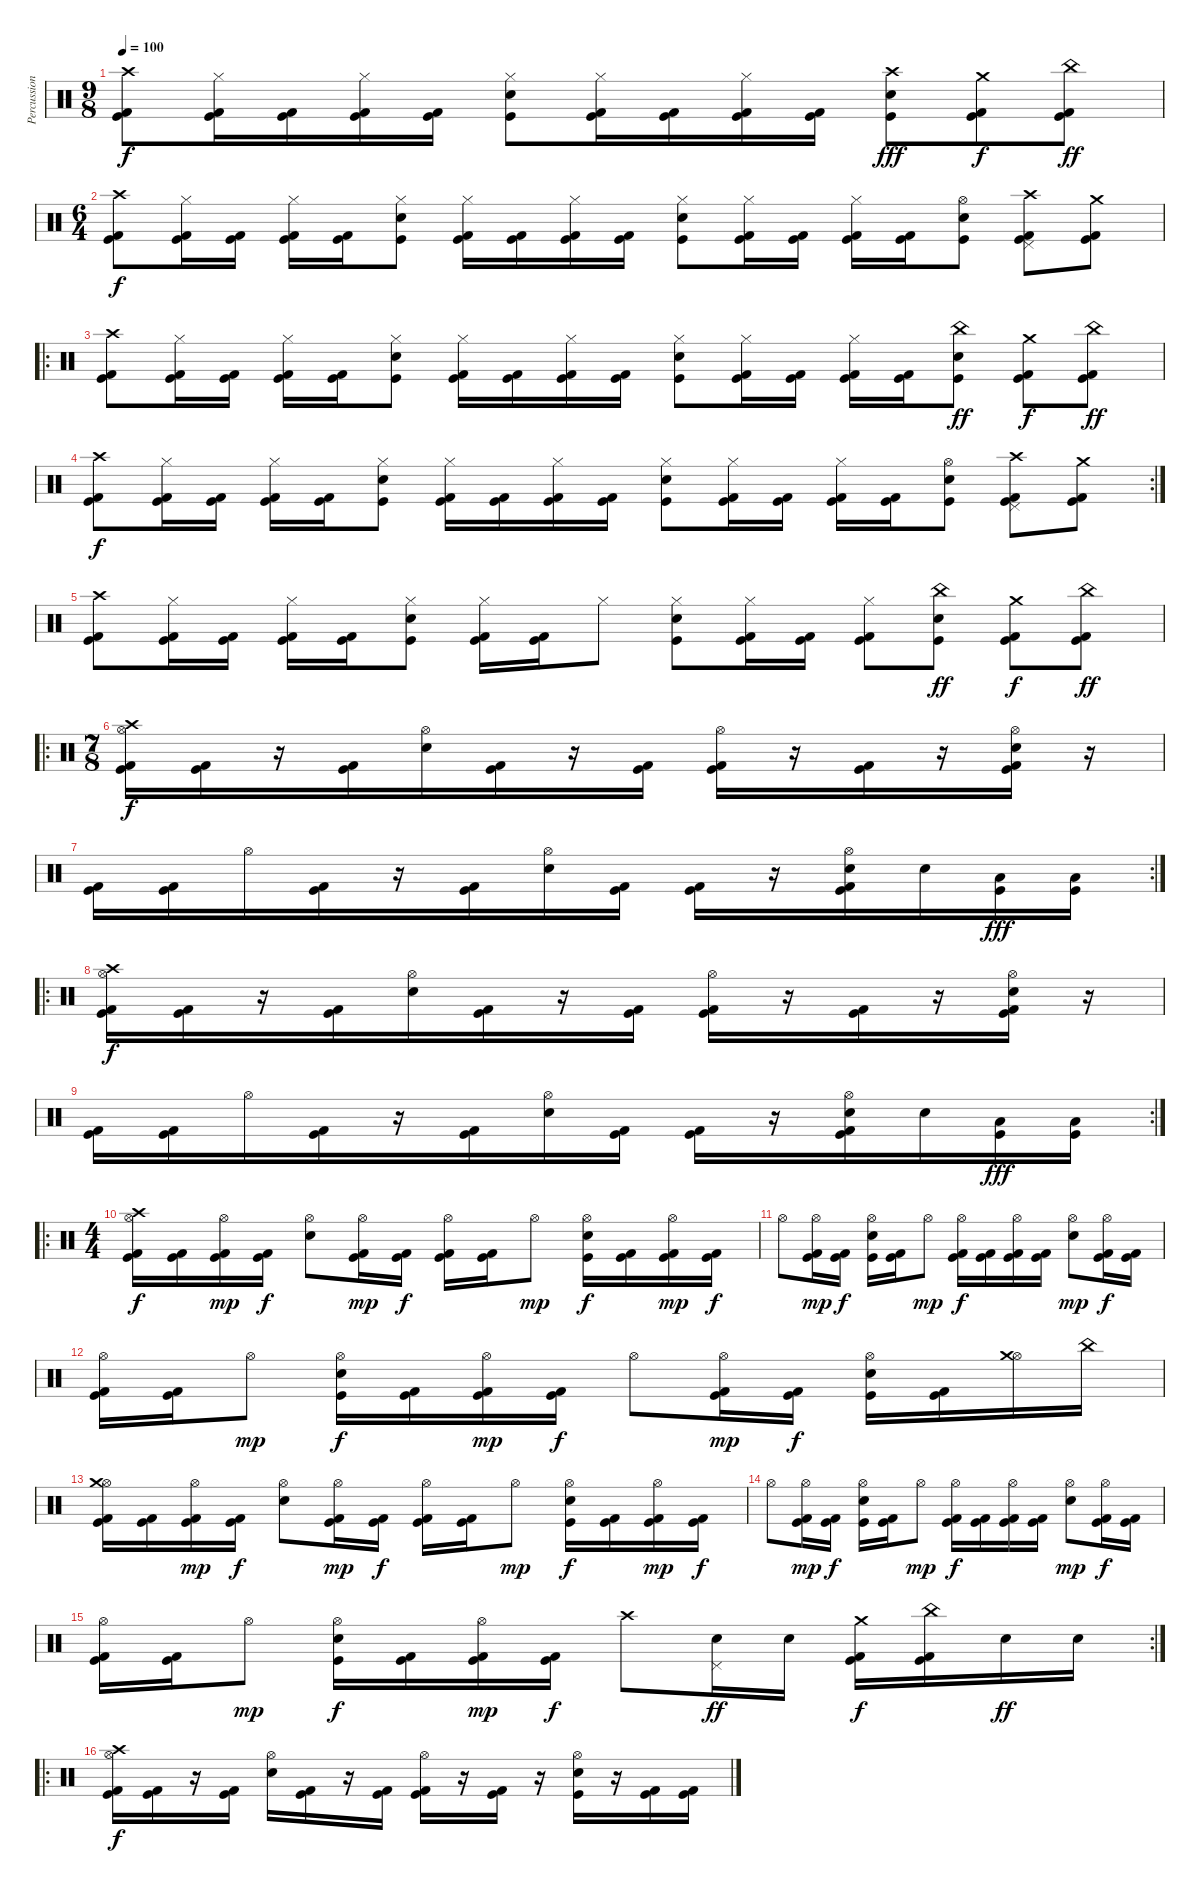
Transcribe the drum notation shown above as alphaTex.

\track ("Percussion" "Percussion") {instrument percussion}
\staff {score}
\articulation defaults
\ts (9 8)
\tempo 100
\clef neutral
\ks c
("Crash high (hit)" "Kick (hit) 2" "Kick (hit)").8{dy f} ("Hi-Hat (closed)" "Kick (hit) 2" "Kick (hit)").16 ("Kick (hit) 2" "Kick (hit)").16 ("Hi-Hat (closed)" "Kick (hit) 2" "Kick (hit)").16 ("Kick (hit) 2" "Kick (hit)").16 ("Hi-Hat (closed)" "Snare (hit) 2" "Kick (hit)").8 ("Hi-Hat (closed)" "Kick (hit) 2" "Kick (hit)").16 ("Kick (hit) 2" "Kick (hit)").16 ("Hi-Hat (closed)" "Kick (hit) 2" "Kick (hit)").16 ("Kick (hit) 2" "Kick (hit)").16 ("Crash high (hit)" "Snare (hit) 2" "Kick (hit)").8{dy fff} ("Crash medium (hit)" "Kick (hit) 2" "Kick (hit)").8{dy f} ("China (hit)" "Kick (hit) 2" "Kick (hit)").8{dy ff} |
\ts (6 4)
("Crash high (hit)" "Kick (hit) 2" "Kick (hit)").8{dy f} ("Hi-Hat (closed)" "Kick (hit) 2" "Kick (hit)").16 ("Kick (hit) 2" "Kick (hit)").16 ("Hi-Hat (closed)" "Kick (hit) 2" "Kick (hit)").16 ("Kick (hit) 2" "Kick (hit)").16 ("Hi-Hat (closed)" "Snare (hit) 2" "Kick (hit)").8 ("Hi-Hat (closed)" "Kick (hit) 2" "Kick (hit)").16 ("Kick (hit) 2" "Kick (hit)").16 ("Hi-Hat (closed)" "Kick (hit) 2" "Kick (hit)").16 ("Kick (hit) 2" "Kick (hit)").16 ("Hi-Hat (closed)" "Snare (hit) 2" "Kick (hit)").8 ("Hi-Hat (closed)" "Kick (hit) 2" "Kick (hit)").16 ("Kick (hit) 2" "Kick (hit)").16 ("Hi-Hat (closed)" "Kick (hit) 2" "Kick (hit)").16 ("Kick (hit) 2" "Kick (hit)").16 ("Hi-Hat (open)" "Snare (hit) 2" "Kick (hit)").8 ("Pedal Hi-Hat (hit)" "Crash high (hit)" "Kick (hit) 2" "Kick (hit)").8 ("Crash medium (hit)" "Kick (hit) 2" "Kick (hit)").8 |
\ro
("Crash high (hit)" "Kick (hit) 2" "Kick (hit)").8 ("Hi-Hat (closed)" "Kick (hit) 2" "Kick (hit)").16 ("Kick (hit) 2" "Kick (hit)").16 ("Hi-Hat (closed)" "Kick (hit) 2" "Kick (hit)").16 ("Kick (hit) 2" "Kick (hit)").16 ("Hi-Hat (closed)" "Snare (hit) 2" "Kick (hit)").8 ("Hi-Hat (closed)" "Kick (hit) 2" "Kick (hit)").16 ("Kick (hit) 2" "Kick (hit)").16 ("Hi-Hat (closed)" "Kick (hit) 2" "Kick (hit)").16 ("Kick (hit) 2" "Kick (hit)").16 ("Hi-Hat (closed)" "Snare (hit) 2" "Kick (hit)").8 ("Hi-Hat (closed)" "Kick (hit) 2" "Kick (hit)").16 ("Kick (hit) 2" "Kick (hit)").16 ("Hi-Hat (closed)" "Kick (hit) 2" "Kick (hit)").16 ("Kick (hit) 2" "Kick (hit)").16 ("China (hit)" "Snare (hit) 2" "Kick (hit)").8{dy ff} ("Crash medium (hit)" "Kick (hit) 2" "Kick (hit)").8{dy f} ("China (hit)" "Kick (hit) 2" "Kick (hit)").8{dy ff} |
\rc 2
("Crash high (hit)" "Kick (hit) 2" "Kick (hit)").8{dy f} ("Hi-Hat (closed)" "Kick (hit) 2" "Kick (hit)").16 ("Kick (hit) 2" "Kick (hit)").16 ("Hi-Hat (closed)" "Kick (hit) 2" "Kick (hit)").16 ("Kick (hit) 2" "Kick (hit)").16 ("Hi-Hat (closed)" "Snare (hit) 2" "Kick (hit)").8 ("Hi-Hat (closed)" "Kick (hit) 2" "Kick (hit)").16 ("Kick (hit) 2" "Kick (hit)").16 ("Hi-Hat (closed)" "Kick (hit) 2" "Kick (hit)").16 ("Kick (hit) 2" "Kick (hit)").16 ("Hi-Hat (closed)" "Snare (hit) 2" "Kick (hit)").8 ("Hi-Hat (closed)" "Kick (hit) 2" "Kick (hit)").16 ("Kick (hit) 2" "Kick (hit)").16 ("Hi-Hat (closed)" "Kick (hit) 2" "Kick (hit)").16 ("Kick (hit) 2" "Kick (hit)").16 ("Hi-Hat (open)" "Snare (hit) 2" "Kick (hit)").8 ("Pedal Hi-Hat (hit)" "Crash high (hit)" "Kick (hit) 2" "Kick (hit)").8 ("Crash medium (hit)" "Kick (hit) 2" "Kick (hit)").8 |
("Crash high (hit)" "Kick (hit) 2" "Kick (hit)").8 ("Hi-Hat (closed)" "Kick (hit) 2" "Kick (hit)").16 ("Kick (hit) 2" "Kick (hit)").16 ("Hi-Hat (closed)" "Kick (hit) 2" "Kick (hit)").16 ("Kick (hit) 2" "Kick (hit)").16 ("Hi-Hat (closed)" "Snare (hit) 2" "Kick (hit)").8 ("Hi-Hat (closed)" "Kick (hit) 2" "Kick (hit)").16 ("Kick (hit) 2" "Kick (hit)").16 "Hi-Hat (closed)".8 ("Hi-Hat (closed)" "Snare (hit) 2" "Kick (hit)").8 ("Hi-Hat (closed)" "Kick (hit) 2" "Kick (hit)").16 ("Kick (hit) 2" "Kick (hit)").16 ("Hi-Hat (closed)" "Kick (hit) 2" "Kick (hit)").8 ("China (hit)" "Snare (hit) 2" "Kick (hit)").8{dy ff} ("Crash medium (hit)" "Kick (hit) 2" "Kick (hit)").8{dy f} ("China (hit)" "Kick (hit) 2" "Kick (hit)").8{dy ff} |
\ro
\ts (7 8)
("Hi-Hat (open)" "Crash high (hit)" "Kick (hit) 2" "Kick (hit)").16{dy f} ("Kick (hit) 2" "Kick (hit)").16 r.16 ("Kick (hit) 2" "Kick (hit)").16 ("Hi-Hat (open)" "Snare (hit) 2").16 ("Kick (hit) 2" "Kick (hit)").16 r.16 ("Kick (hit) 2" "Kick (hit)").16 ("Hi-Hat (open)" "Kick (hit) 2" "Kick (hit)").16 r.16 ("Kick (hit) 2" "Kick (hit)").16 r.16 ("Hi-Hat (open)" "Snare (hit) 2" "Kick (hit) 2" "Kick (hit)").16 r.16 |
\rc 2
("Kick (hit) 2" "Kick (hit)").16 ("Kick (hit) 2" "Kick (hit)").16 "Hi-Hat (open)".16 ("Kick (hit) 2" "Kick (hit)").16 r.16 ("Kick (hit) 2" "Kick (hit)").16 ("Hi-Hat (open)" "Snare (hit) 2").16 ("Kick (hit) 2" "Kick (hit)").16 ("Kick (hit) 2" "Kick (hit)").16 r.16 ("Hi-Hat (open)" "Snare (hit) 2" "Kick (hit) 2" "Kick (hit)").16 "Snare (hit) 2".16 ("Low Tom (hit)" "Kick (hit)").16{dy fff} ("Low Tom (hit)" "Kick (hit)").16 |
\ro
("Hi-Hat (open)" "Crash high (hit)" "Kick (hit) 2" "Kick (hit)").16{dy f} ("Kick (hit) 2" "Kick (hit)").16 r.16 ("Kick (hit) 2" "Kick (hit)").16 ("Hi-Hat (open)" "Snare (hit) 2").16 ("Kick (hit) 2" "Kick (hit)").16 r.16 ("Kick (hit) 2" "Kick (hit)").16 ("Hi-Hat (open)" "Kick (hit) 2" "Kick (hit)").16 r.16 ("Kick (hit) 2" "Kick (hit)").16 r.16 ("Hi-Hat (open)" "Snare (hit) 2" "Kick (hit) 2" "Kick (hit)").16 r.16 |
\rc 2
("Kick (hit) 2" "Kick (hit)").16 ("Kick (hit) 2" "Kick (hit)").16 "Hi-Hat (open)".16 ("Kick (hit) 2" "Kick (hit)").16 r.16 ("Kick (hit) 2" "Kick (hit)").16 ("Hi-Hat (open)" "Snare (hit) 2").16 ("Kick (hit) 2" "Kick (hit)").16 ("Kick (hit) 2" "Kick (hit)").16 r.16 ("Hi-Hat (open)" "Snare (hit) 2" "Kick (hit) 2" "Kick (hit)").16 "Snare (hit) 2".16 ("Low Tom (hit)" "Kick (hit)").16{dy fff} ("Low Tom (hit)" "Kick (hit)").16 |
\ro
\ts (4 4)
("Hi-Hat (open)" "Crash high (hit)" "Kick (hit) 2" "Kick (hit)").16{dy f} ("Kick (hit) 2" "Kick (hit)").16 ("Hi-Hat (open)" "Kick (hit) 2" "Kick (hit)").16{dy mp} ("Kick (hit) 2" "Kick (hit)").16{dy f} ("Hi-Hat (open)" "Snare (hit) 2").8 ("Hi-Hat (open)" "Kick (hit) 2" "Kick (hit)").16{dy mp} ("Kick (hit) 2" "Kick (hit)").16{dy f} ("Hi-Hat (open)" "Kick (hit) 2" "Kick (hit)").16 ("Kick (hit) 2" "Kick (hit)").16 "Hi-Hat (open)".8{dy mp} ("Hi-Hat (open)" "Snare (hit) 2" "Kick (hit)").16{dy f} ("Kick (hit) 2" "Kick (hit)").16 ("Hi-Hat (open)" "Kick (hit) 2" "Kick (hit)").16{dy mp} ("Kick (hit) 2" "Kick (hit)").16{dy f} |
"Hi-Hat (open)".8 ("Hi-Hat (open)" "Kick (hit) 2" "Kick (hit)").16{dy mp} ("Kick (hit) 2" "Kick (hit)").16{dy f} ("Hi-Hat (open)" "Snare (hit) 2" "Kick (hit)").16 ("Kick (hit) 2" "Kick (hit)").16 "Hi-Hat (open)".8{dy mp} ("Hi-Hat (open)" "Kick (hit) 2" "Kick (hit)").16{dy f} ("Kick (hit) 2" "Kick (hit)").16 ("Hi-Hat (open)" "Kick (hit) 2" "Kick (hit)").16 ("Kick (hit) 2" "Kick (hit)").16 ("Hi-Hat (open)" "Snare (hit) 2").8{dy mp} ("Hi-Hat (open)" "Kick (hit) 2" "Kick (hit)").16{dy f} ("Kick (hit) 2" "Kick (hit)").16 |
("Hi-Hat (open)" "Kick (hit) 2" "Kick (hit)").16 ("Kick (hit) 2" "Kick (hit)").16 "Hi-Hat (open)".8{dy mp} ("Hi-Hat (open)" "Snare (hit) 2" "Kick (hit)").16{dy f} ("Kick (hit) 2" "Kick (hit)").16 ("Hi-Hat (open)" "Kick (hit) 2" "Kick (hit)").16{dy mp} ("Kick (hit) 2" "Kick (hit)").16{dy f} "Hi-Hat (open)".8 ("Hi-Hat (open)" "Kick (hit) 2" "Kick (hit)").16{dy mp} ("Kick (hit) 2" "Kick (hit)").16{dy f} ("Hi-Hat (open)" "Snare (hit) 2" "Kick (hit)").16 ("Kick (hit) 2" "Kick (hit)").16 ("Hi-Hat (open)" "Crash medium (hit)").16 "China (hit)".16 |
("Hi-Hat (open)" "Crash medium (hit)" "Kick (hit) 2" "Kick (hit)").16 ("Kick (hit) 2" "Kick (hit)").16 ("Hi-Hat (open)" "Kick (hit) 2" "Kick (hit)").16{dy mp} ("Kick (hit) 2" "Kick (hit)").16{dy f} ("Hi-Hat (open)" "Snare (hit) 2").8 ("Hi-Hat (open)" "Kick (hit) 2" "Kick (hit)").16{dy mp} ("Kick (hit) 2" "Kick (hit)").16{dy f} ("Hi-Hat (open)" "Kick (hit) 2" "Kick (hit)").16 ("Kick (hit) 2" "Kick (hit)").16 "Hi-Hat (open)".8{dy mp} ("Hi-Hat (open)" "Snare (hit) 2" "Kick (hit)").16{dy f} ("Kick (hit) 2" "Kick (hit)").16 ("Hi-Hat (open)" "Kick (hit) 2" "Kick (hit)").16{dy mp} ("Kick (hit) 2" "Kick (hit)").16{dy f} |
"Hi-Hat (open)".8 ("Hi-Hat (open)" "Kick (hit) 2" "Kick (hit)").16{dy mp} ("Kick (hit) 2" "Kick (hit)").16{dy f} ("Hi-Hat (open)" "Snare (hit) 2" "Kick (hit)").16 ("Kick (hit) 2" "Kick (hit)").16 "Hi-Hat (open)".8{dy mp} ("Hi-Hat (open)" "Kick (hit) 2" "Kick (hit)").16{dy f} ("Kick (hit) 2" "Kick (hit)").16 ("Hi-Hat (open)" "Kick (hit) 2" "Kick (hit)").16 ("Kick (hit) 2" "Kick (hit)").16 ("Hi-Hat (open)" "Snare (hit) 2").8{dy mp} ("Hi-Hat (open)" "Kick (hit) 2" "Kick (hit)").16{dy f} ("Kick (hit) 2" "Kick (hit)").16 |
\rc 2
("Hi-Hat (open)" "Kick (hit) 2" "Kick (hit)").16 ("Kick (hit) 2" "Kick (hit)").16 "Hi-Hat (open)".8{dy mp} ("Hi-Hat (open)" "Snare (hit) 2" "Kick (hit)").16{dy f} ("Kick (hit) 2" "Kick (hit)").16 ("Hi-Hat (open)" "Kick (hit) 2" "Kick (hit)").16{dy mp} ("Kick (hit) 2" "Kick (hit)").16{dy f} "Crash high (hit)".8 ("Pedal Hi-Hat (hit)" "Snare (hit) 2").16{dy ff} "Snare (hit) 2".16 ("Crash medium (hit)" "Kick (hit) 2" "Kick (hit)").16{dy f} ("China (hit)" "Kick (hit) 2" "Kick (hit)").16 "Snare (hit) 2".16{dy ff} "Snare (hit) 2".16 |
\ro
("Hi-Hat (open)" "Crash high (hit)" "Kick (hit) 2" "Kick (hit)").16{dy f} ("Kick (hit) 2" "Kick (hit)").16 r.16 ("Kick (hit) 2" "Kick (hit)").16 ("Hi-Hat (open)" "Snare (hit) 2").16 ("Kick (hit) 2" "Kick (hit)").16 r.16 ("Kick (hit) 2" "Kick (hit)").16 ("Hi-Hat (open)" "Kick (hit) 2" "Kick (hit)").16 r.16 ("Kick (hit) 2" "Kick (hit)").16 r.16 ("Hi-Hat (open)" "Snare (hit) 2" "Kick (hit)").16 r.16 ("Kick (hit) 2" "Kick (hit)").16 ("Kick (hit) 2" "Kick (hit)").16
